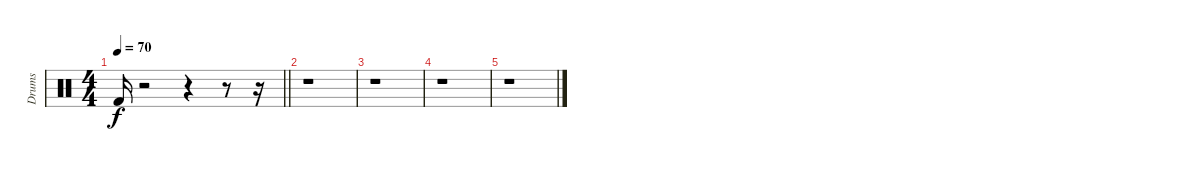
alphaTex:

\track ("Drums" "Drums") {instrument percussion}
\staff {score}
\articulation defaults
\ts (4 4)
\tempo 70
\clef neutral
\barLineRight lightlight
\ks c "Kick (hit) 2".16{dy f}
r.2 r.4 r.8 r.16 |
r.1 |
r.1 |
r.1 |
r.1
